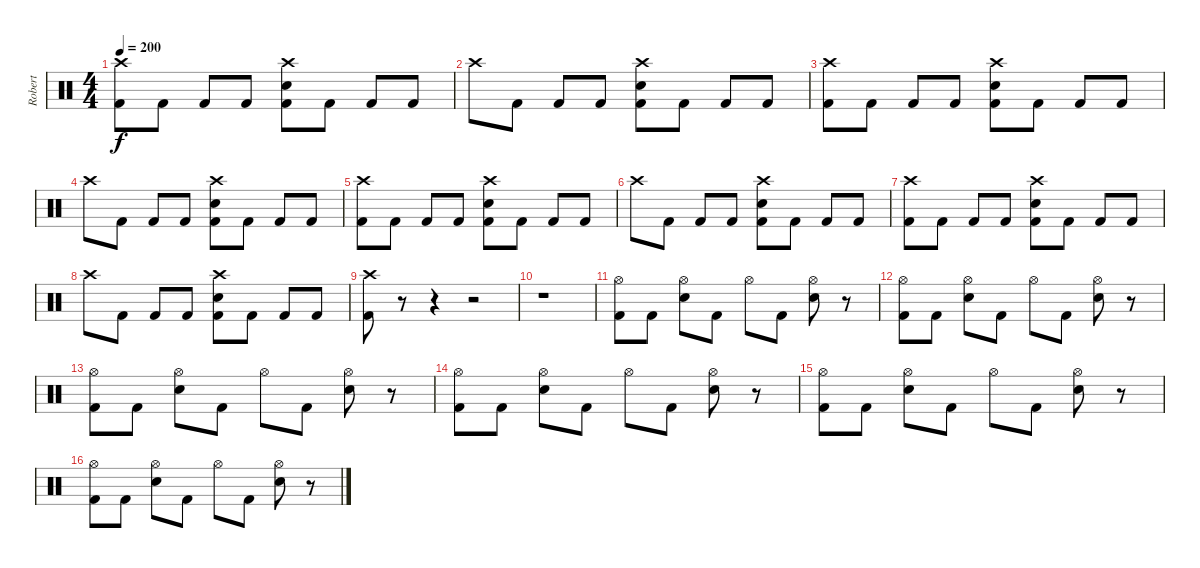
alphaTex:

\track ("Robert" "Robert") {instrument percussion}
\staff {score}
\articulation defaults
\ts (4 4)
\tempo 200
\clef neutral
\ks c
("Crash high (hit)" "Kick (hit) 2").8{dy f volume 12} "Kick (hit) 2".8 "Kick (hit) 2".8 "Kick (hit) 2".8 ("Crash high (hit)" "Electric Snare (hit)" "Kick (hit) 2").8 "Kick (hit) 2".8 "Kick (hit) 2".8 "Kick (hit) 2".8 |
"Crash high (hit)".8 "Kick (hit) 2".8 "Kick (hit) 2".8 "Kick (hit) 2".8 ("Crash high (hit)" "Electric Snare (hit)" "Kick (hit) 2").8 "Kick (hit) 2".8 "Kick (hit) 2".8 "Kick (hit) 2".8 |
("Crash high (hit)" "Kick (hit) 2").8 "Kick (hit) 2".8 "Kick (hit) 2".8 "Kick (hit) 2".8 ("Crash high (hit)" "Electric Snare (hit)" "Kick (hit) 2").8 "Kick (hit) 2".8 "Kick (hit) 2".8 "Kick (hit) 2".8 |
"Crash high (hit)".8 "Kick (hit) 2".8 "Kick (hit) 2".8 "Kick (hit) 2".8 ("Crash high (hit)" "Electric Snare (hit)" "Kick (hit) 2").8 "Kick (hit) 2".8 "Kick (hit) 2".8 "Kick (hit) 2".8 |
("Crash high (hit)" "Kick (hit) 2").8 "Kick (hit) 2".8 "Kick (hit) 2".8 "Kick (hit) 2".8 ("Crash high (hit)" "Electric Snare (hit)" "Kick (hit) 2").8 "Kick (hit) 2".8 "Kick (hit) 2".8 "Kick (hit) 2".8 |
"Crash high (hit)".8 "Kick (hit) 2".8 "Kick (hit) 2".8 "Kick (hit) 2".8 ("Crash high (hit)" "Electric Snare (hit)" "Kick (hit) 2").8 "Kick (hit) 2".8 "Kick (hit) 2".8 "Kick (hit) 2".8 |
("Crash high (hit)" "Kick (hit) 2").8 "Kick (hit) 2".8 "Kick (hit) 2".8 "Kick (hit) 2".8 ("Crash high (hit)" "Electric Snare (hit)" "Kick (hit) 2").8 "Kick (hit) 2".8 "Kick (hit) 2".8 "Kick (hit) 2".8 |
"Crash high (hit)".8 "Kick (hit) 2".8 "Kick (hit) 2".8 "Kick (hit) 2".8 ("Crash high (hit)" "Electric Snare (hit)" "Kick (hit) 2").8 "Kick (hit) 2".8 "Kick (hit) 2".8 "Kick (hit) 2".8 |
("Crash high (hit)" "Kick (hit) 2").8 r.8 r.4 r.2 |
r.1 |
("Hi-Hat (open)" "Kick (hit) 2").8 "Kick (hit) 2".8 ("Hi-Hat (open)" "Electric Snare (hit)").8 "Kick (hit) 2".8 "Hi-Hat (open)".8 "Kick (hit) 2".8 ("Hi-Hat (open)" "Electric Snare (hit)").8 r.8 |
("Hi-Hat (open)" "Kick (hit) 2").8 "Kick (hit) 2".8 ("Hi-Hat (open)" "Electric Snare (hit)").8 "Kick (hit) 2".8 "Hi-Hat (open)".8 "Kick (hit) 2".8 ("Hi-Hat (open)" "Electric Snare (hit)").8 r.8 |
("Hi-Hat (open)" "Kick (hit) 2").8 "Kick (hit) 2".8 ("Hi-Hat (open)" "Electric Snare (hit)").8 "Kick (hit) 2".8 "Hi-Hat (open)".8 "Kick (hit) 2".8 ("Hi-Hat (open)" "Electric Snare (hit)").8 r.8 |
("Hi-Hat (open)" "Kick (hit) 2").8 "Kick (hit) 2".8 ("Hi-Hat (open)" "Electric Snare (hit)").8 "Kick (hit) 2".8 "Hi-Hat (open)".8 "Kick (hit) 2".8 ("Hi-Hat (open)" "Electric Snare (hit)").8 r.8 |
("Hi-Hat (open)" "Kick (hit) 2").8 "Kick (hit) 2".8 ("Hi-Hat (open)" "Electric Snare (hit)").8 "Kick (hit) 2".8 "Hi-Hat (open)".8 "Kick (hit) 2".8 ("Hi-Hat (open)" "Electric Snare (hit)").8 r.8 |
("Hi-Hat (open)" "Kick (hit) 2").8 "Kick (hit) 2".8 ("Hi-Hat (open)" "Electric Snare (hit)").8 "Kick (hit) 2".8 "Hi-Hat (open)".8 "Kick (hit) 2".8 ("Hi-Hat (open)" "Electric Snare (hit)").8 r.8
